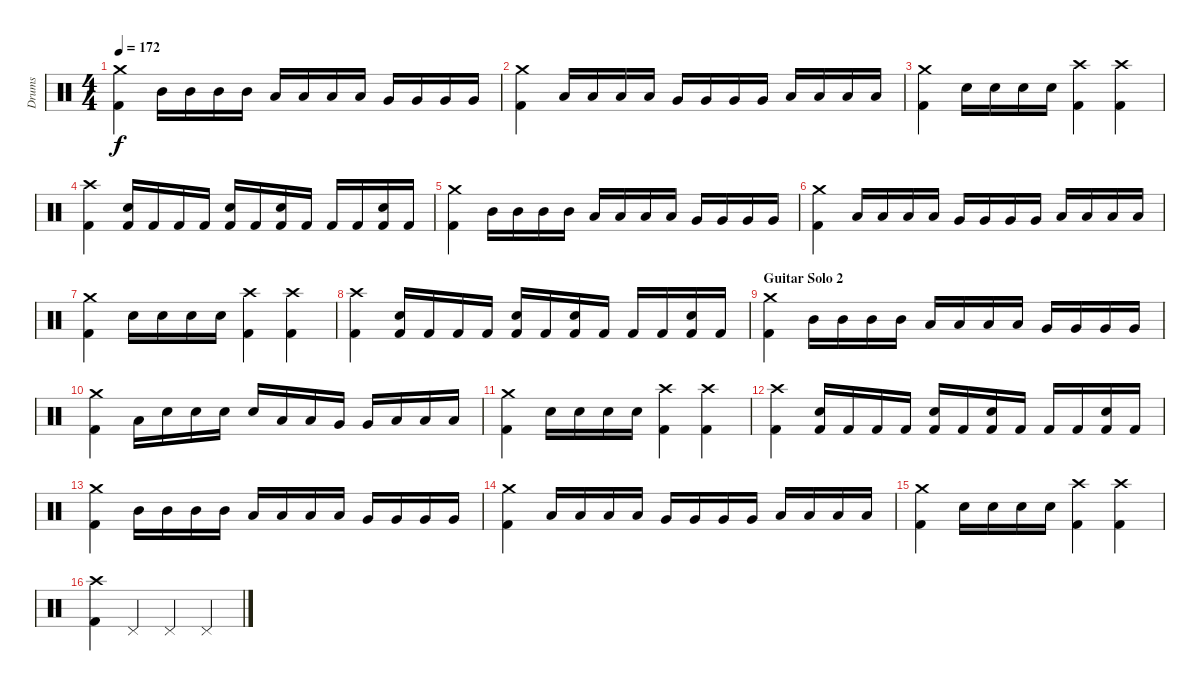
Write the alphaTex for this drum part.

\track ("Drums" "Drums") {instrument percussion}
\staff {score}
\articulation defaults
\ts (4 4)
\section ("" "")
\tempo 172
\clef neutral
\ks c
("Crash medium (hit)" "Kick (hit) 2").4{dy f} "Mid Tom (hit)".16 "Mid Tom (hit)".16 "Mid Tom (hit)".16 "Mid Tom (hit)".16 "Low Tom (hit)".16 "Low Tom (hit)".16 "Low Tom (hit)".16 "Low Tom (hit)".16 "Very Low Tom (hit)".16 "Very Low Tom (hit)".16 "Very Low Tom (hit)".16 "Very Low Tom (hit)".16 |
("Crash medium (hit)" "Kick (hit) 2").4 "Low Tom (hit)".16 "Low Tom (hit)".16 "Low Tom (hit)".16 "Low Tom (hit)".16 "Very Low Tom (hit)".16 "Very Low Tom (hit)".16 "Very Low Tom (hit)".16 "Very Low Tom (hit)".16 "Low Floor Tom (hit)".16 "Low Floor Tom (hit)".16 "Low Floor Tom (hit)".16 "Low Floor Tom (hit)".16 |
("Crash medium (hit)" "Kick (hit) 2").4 "Electric Snare (hit)".16 "Electric Snare (hit)".16 "Electric Snare (hit)".16 "Electric Snare (hit)".16 ("Crash high (hit)" "Kick (hit) 2").4 ("Crash high (hit)" "Kick (hit) 2").4 |
("Crash high (hit)" "Kick (hit) 2").4 ("Electric Snare (hit)" "Kick (hit) 2").16 "Kick (hit) 2".16 "Kick (hit) 2".16 "Kick (hit) 2".16 ("Electric Snare (hit)" "Kick (hit) 2").16 "Kick (hit) 2".16 ("Electric Snare (hit)" "Kick (hit) 2").16 "Kick (hit) 2".16 "Kick (hit) 2".16 "Kick (hit) 2".16 ("Electric Snare (hit)" "Kick (hit) 2").16 "Kick (hit) 2".16 |
("Crash medium (hit)" "Kick (hit) 2").4 "Mid Tom (hit)".16 "Mid Tom (hit)".16 "Mid Tom (hit)".16 "Mid Tom (hit)".16 "Low Tom (hit)".16 "Low Tom (hit)".16 "Low Tom (hit)".16 "Low Tom (hit)".16 "Very Low Tom (hit)".16 "Very Low Tom (hit)".16 "Very Low Tom (hit)".16 "Very Low Tom (hit)".16 |
("Crash medium (hit)" "Kick (hit) 2").4 "Low Tom (hit)".16 "Low Tom (hit)".16 "Low Tom (hit)".16 "Low Tom (hit)".16 "Very Low Tom (hit)".16 "Very Low Tom (hit)".16 "Very Low Tom (hit)".16 "Very Low Tom (hit)".16 "Low Floor Tom (hit)".16 "Low Floor Tom (hit)".16 "Low Floor Tom (hit)".16 "Low Floor Tom (hit)".16 |
("Crash medium (hit)" "Kick (hit) 2").4 "Electric Snare (hit)".16 "Electric Snare (hit)".16 "Electric Snare (hit)".16 "Electric Snare (hit)".16 ("Crash high (hit)" "Kick (hit) 2").4 ("Crash high (hit)" "Kick (hit) 2").4 |
("Crash high (hit)" "Kick (hit) 2").4 ("Electric Snare (hit)" "Kick (hit) 2").16 "Kick (hit) 2".16 "Kick (hit) 2".16 "Kick (hit) 2".16 ("Electric Snare (hit)" "Kick (hit) 2").16 "Kick (hit) 2".16 ("Electric Snare (hit)" "Kick (hit) 2").16 "Kick (hit) 2".16 "Kick (hit) 2".16 "Kick (hit) 2".16 ("Electric Snare (hit)" "Kick (hit) 2").16 "Kick (hit) 2".16 |
\section ("" "Guitar Solo 2")
("Crash medium (hit)" "Kick (hit) 2").4 "Mid Tom (hit)".16 "Mid Tom (hit)".16 "Mid Tom (hit)".16 "Mid Tom (hit)".16 "Low Tom (hit)".16 "Low Tom (hit)".16 "Low Tom (hit)".16 "Low Tom (hit)".16 "Very Low Tom (hit)".16 "Very Low Tom (hit)".16 "Very Low Tom (hit)".16 "Very Low Tom (hit)".16 |
("Crash medium (hit)" "Kick (hit) 2").4 "Low Tom (hit)".16 "Electric Snare (hit)".16 "Electric Snare (hit)".16 "Electric Snare (hit)".16 "Electric Snare (hit)".16 "Low Tom (hit)".16 "Low Tom (hit)".16 "Very Low Tom (hit)".16 "Very Low Tom (hit)".16 "Low Floor Tom (hit)".16 "Low Floor Tom (hit)".16 "Low Floor Tom (hit)".16 |
("Crash medium (hit)" "Kick (hit) 2").4 "Electric Snare (hit)".16 "Electric Snare (hit)".16 "Electric Snare (hit)".16 "Electric Snare (hit)".16 ("Crash high (hit)" "Kick (hit) 2").4 ("Crash high (hit)" "Kick (hit) 2").4 |
("Crash high (hit)" "Kick (hit) 2").4 ("Electric Snare (hit)" "Kick (hit) 2").16 "Kick (hit) 2".16 "Kick (hit) 2".16 "Kick (hit) 2".16 ("Electric Snare (hit)" "Kick (hit) 2").16 "Kick (hit) 2".16 ("Electric Snare (hit)" "Kick (hit) 2").16 "Kick (hit) 2".16 "Kick (hit) 2".16 "Kick (hit) 2".16 ("Electric Snare (hit)" "Kick (hit) 2").16 "Kick (hit) 2".16 |
("Crash medium (hit)" "Kick (hit) 2").4 "Mid Tom (hit)".16 "Mid Tom (hit)".16 "Mid Tom (hit)".16 "Mid Tom (hit)".16 "Low Tom (hit)".16 "Low Tom (hit)".16 "Low Tom (hit)".16 "Low Tom (hit)".16 "Very Low Tom (hit)".16 "Very Low Tom (hit)".16 "Very Low Tom (hit)".16 "Very Low Tom (hit)".16 |
("Crash medium (hit)" "Kick (hit) 2").4 "Low Tom (hit)".16 "Low Tom (hit)".16 "Low Tom (hit)".16 "Low Tom (hit)".16 "Very Low Tom (hit)".16 "Very Low Tom (hit)".16 "Very Low Tom (hit)".16 "Very Low Tom (hit)".16 "Low Floor Tom (hit)".16 "Low Floor Tom (hit)".16 "Low Floor Tom (hit)".16 "Low Floor Tom (hit)".16 |
("Crash medium (hit)" "Kick (hit) 2").4 "Electric Snare (hit)".16 "Electric Snare (hit)".16 "Electric Snare (hit)".16 "Electric Snare (hit)".16 ("Crash high (hit)" "Kick (hit) 2").4 ("Crash high (hit)" "Kick (hit) 2").4 |
\section ("" "")
("Crash high (hit)" "Kick (hit) 2").4 "Pedal Hi-Hat (hit)".4 "Pedal Hi-Hat (hit)".4 "Pedal Hi-Hat (hit)".4
